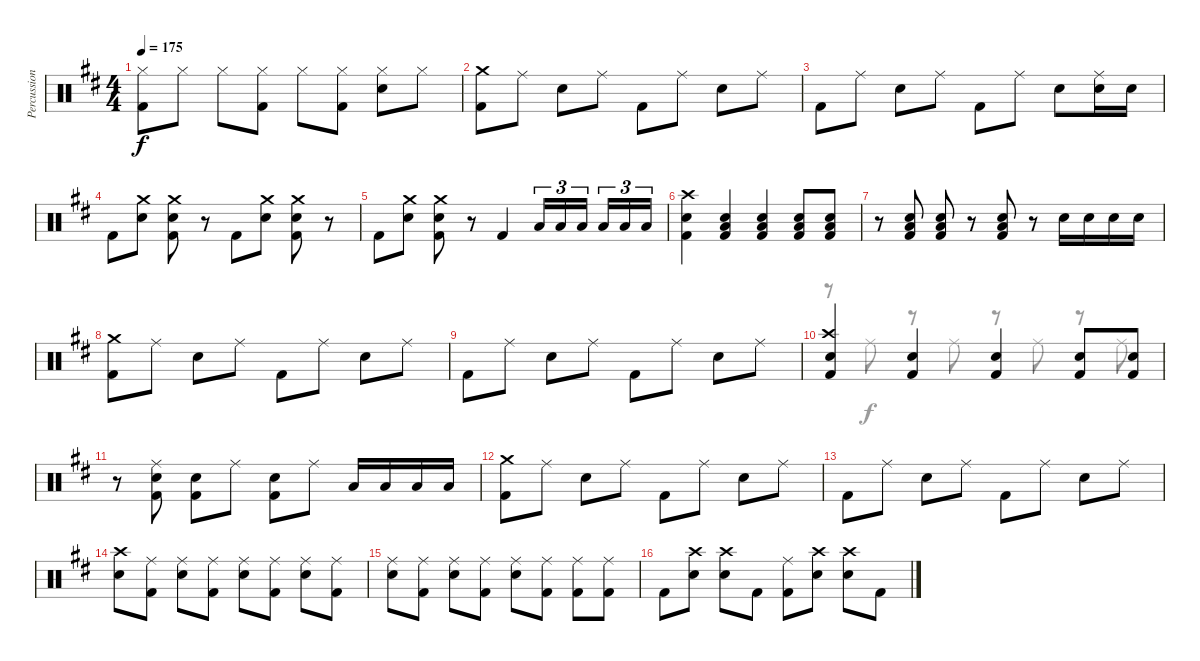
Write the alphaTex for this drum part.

\track ("Percussion" "Percussion") {instrument percussion}
\staff {score}
\articulation defaults
\voice
\ts (4 4)
\tempo 175
\clef neutral
\ks d
("Hi-Hat (closed)" "Kick (hit) 2").8{dy f} "Hi-Hat (closed)".8 "Hi-Hat (closed)".8 ("Hi-Hat (closed)" "Kick (hit) 2").8 "Hi-Hat (closed)".8 ("Hi-Hat (closed)" "Kick (hit) 2").8 ("Hi-Hat (closed)" "Electric Snare (hit)").8 "Hi-Hat (closed)".8 |
("Crash medium (hit)" "Kick (hit) 2").8 "Ride (middle)".8 "Electric Snare (hit)".8 "Ride (middle)".8 "Kick (hit) 2".8 "Ride (middle)".8 "Electric Snare (hit)".8 "Ride (middle)".8 |
"Kick (hit) 2".8 "Ride (middle)".8 "Electric Snare (hit)".8 "Ride (middle)".8 "Kick (hit) 2".8 "Ride (middle)".8 "Electric Snare (hit)".8 ("Ride (middle)" "Electric Snare (hit)").16 "Electric Snare (hit)".16 |
"Kick (hit) 2".8 ("Crash medium (hit)" "Electric Snare (hit)").8 ("Crash medium (hit)" "Electric Snare (hit)" "Kick (hit) 2").8 r.8 "Kick (hit) 2".8 ("Crash medium (hit)" "Electric Snare (hit)").8 ("Crash medium (hit)" "Electric Snare (hit)" "Kick (hit) 2").8 r.8 |
"Kick (hit) 2".8 ("Crash medium (hit)" "Electric Snare (hit)").8 ("Crash medium (hit)" "Electric Snare (hit)" "Kick (hit) 2").8 r.8 "Kick (hit) 2".4 "Low Floor Tom (hit)".16{tu (3 2)} "Low Floor Tom (hit)".16{tu (3 2)} "Low Floor Tom (hit)".16{tu (3 2) beam splitsecondary} "Low Floor Tom (hit)".16{tu (3 2)} "Low Floor Tom (hit)".16{tu (3 2)} "Low Floor Tom (hit)".16{tu (3 2)} |
("Crash high (hit)" "Electric Snare (hit)" "Kick (hit) 2").4 ("Low Floor Tom (hit)" "Electric Snare (hit)" "Kick (hit) 2").4 ("Low Floor Tom (hit)" "Electric Snare (hit)" "Kick (hit) 2").4 ("Low Floor Tom (hit)" "Electric Snare (hit)" "Kick (hit) 2").8 ("Low Floor Tom (hit)" "Electric Snare (hit)" "Kick (hit) 2").8 |
r.8 ("Low Floor Tom (hit)" "Electric Snare (hit)" "Kick (hit) 2").8 ("Low Floor Tom (hit)" "Electric Snare (hit)" "Kick (hit) 2").8 r.8 ("Low Floor Tom (hit)" "Electric Snare (hit)" "Kick (hit) 2").8 r.8 "Electric Snare (hit)".16 "Electric Snare (hit)".16 "Electric Snare (hit)".16 "Electric Snare (hit)".16 |
("Crash medium (hit)" "Kick (hit) 2").8 "Ride (middle)".8 "Electric Snare (hit)".8 "Ride (middle)".8 "Kick (hit) 2".8 "Ride (middle)".8 "Electric Snare (hit)".8 "Ride (middle)".8 |
"Kick (hit) 2".8 "Ride (middle)".8 "Electric Snare (hit)".8 "Ride (middle)".8 "Kick (hit) 2".8 "Ride (middle)".8 "Electric Snare (hit)".8 "Ride (middle)".8 |
("Crash high (hit)" "Electric Snare (hit)" "Kick (hit) 2").4 ("Electric Snare (hit)" "Kick (hit) 2").4 ("Electric Snare (hit)" "Kick (hit) 2").4 ("Electric Snare (hit)" "Kick (hit) 2").8 ("Electric Snare (hit)" "Kick (hit) 2").8 |
r.8 ("Ride (middle)" "Electric Snare (hit)" "Kick (hit) 2").8 ("Electric Snare (hit)" "Kick (hit) 2").8 "Ride (middle)".8 ("Electric Snare (hit)" "Kick (hit) 2").8 "Ride (middle)".8 "Low Floor Tom (hit)".16 "Low Floor Tom (hit)".16 "Low Floor Tom (hit)".16 "Low Floor Tom (hit)".16 |
("Crash medium (hit)" "Kick (hit) 2").8 "Ride (middle)".8 "Electric Snare (hit)".8 "Ride (middle)".8 "Kick (hit) 2".8 "Ride (middle)".8 "Electric Snare (hit)".8 "Ride (middle)".8 |
"Kick (hit) 2".8 "Ride (middle)".8 "Electric Snare (hit)".8 "Ride (middle)".8 "Kick (hit) 2".8 "Ride (middle)".8 "Electric Snare (hit)".8 "Ride (middle)".8 |
("Crash high (hit)" "Electric Snare (hit)").8 ("Ride (middle)" "Kick (hit) 2").8 ("Ride (middle)" "Electric Snare (hit)").8 ("Ride (middle)" "Kick (hit) 2").8 ("Ride (middle)" "Electric Snare (hit)").8 ("Ride (middle)" "Kick (hit) 2").8 ("Ride (middle)" "Electric Snare (hit)").8 ("Ride (middle)" "Kick (hit) 2").8 |
("Ride (middle)" "Electric Snare (hit)").8 ("Ride (middle)" "Kick (hit) 2").8 ("Ride (middle)" "Electric Snare (hit)").8 ("Ride (middle)" "Kick (hit) 2").8 ("Ride (middle)" "Electric Snare (hit)").8 ("Ride (middle)" "Kick (hit) 2").8 ("Ride (middle)" "Kick (hit) 2").8 ("Ride (middle)" "Kick (hit) 2").8 |
"Kick (hit) 2".8 ("Crash high (hit)" "Electric Snare (hit)").8 ("Crash high (hit)" "Electric Snare (hit)").8 "Kick (hit) 2".8 ("Ride (middle)" "Kick (hit) 2").8 ("Crash high (hit)" "Electric Snare (hit)").8 ("Crash high (hit)" "Electric Snare (hit)").8 "Kick (hit) 2".8
\voice
\clef neutral
\ottava regular
\simile none
\ks d
|
|
|
|
|
|
|
|
|
r.8 "Ride (middle)".8 r.8 "Ride (middle)".8 r.8 "Ride (middle)".8 r.8 "Ride (middle)".8 |
|
|
|
|
|
